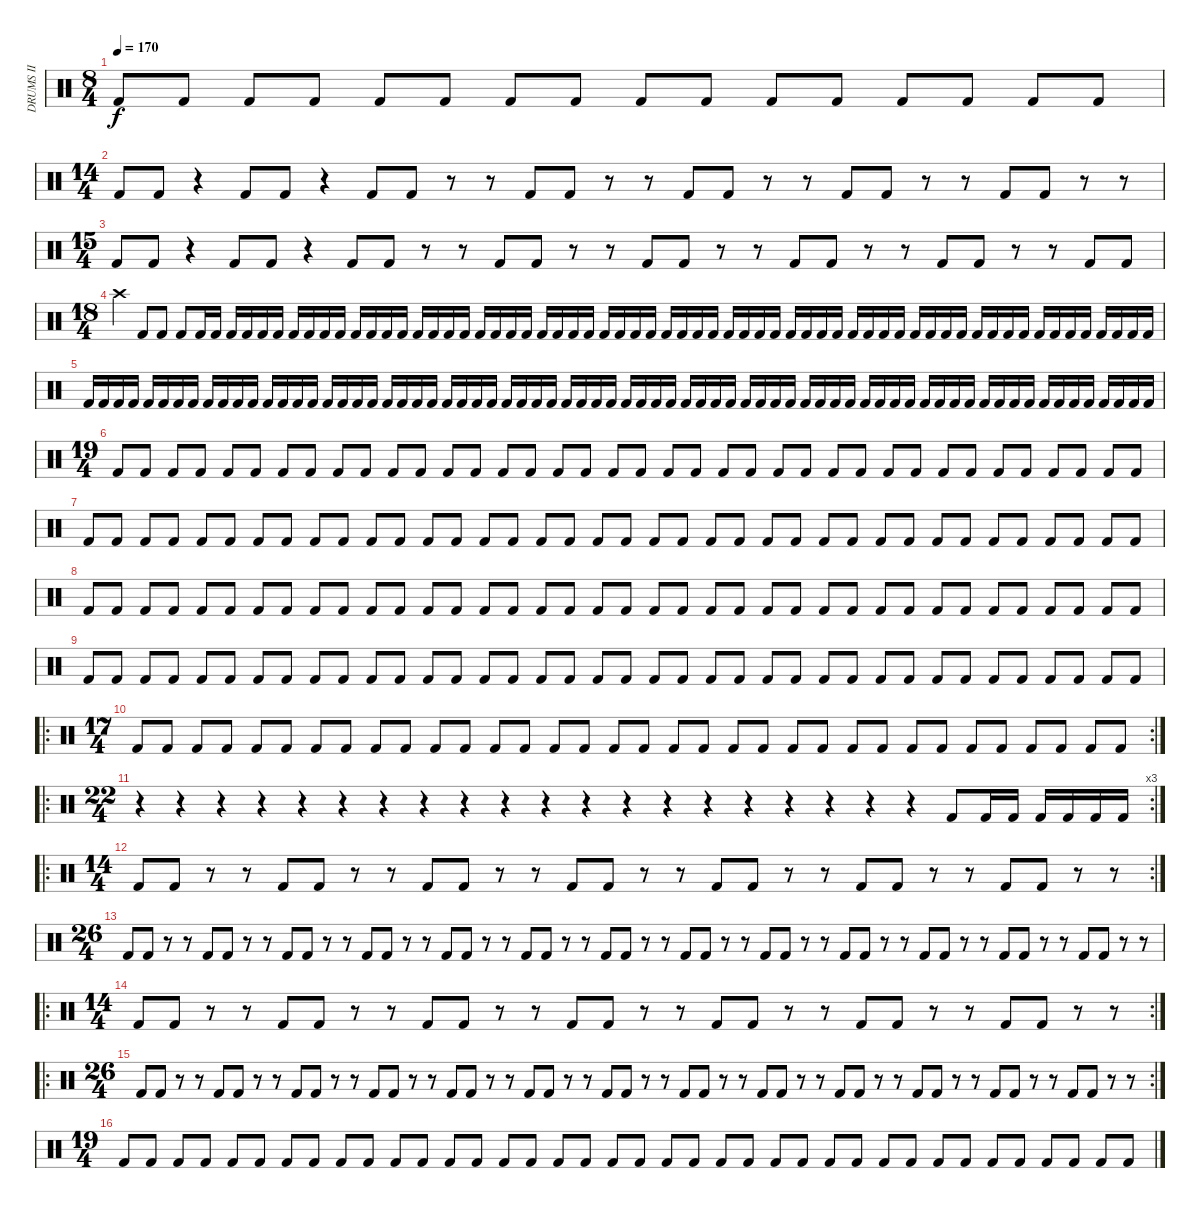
\track ("DRUMS II" "DRUMS II") {instrument percussion}
\staff {score}
\articulation defaults
\ts (8 4)
\tempo 170
\clef neutral
\ks c "Kick (hit) 2".8{dy f} "Kick (hit) 2".8 "Kick (hit) 2".8 "Kick (hit) 2".8 "Kick (hit) 2".8 "Kick (hit) 2".8 "Kick (hit) 2".8 "Kick (hit) 2".8 "Kick (hit) 2".8 "Kick (hit) 2".8 "Kick (hit) 2".8 "Kick (hit) 2".8 "Kick (hit) 2".8 "Kick (hit) 2".8 "Kick (hit) 2".8 "Kick (hit) 2".8
|
\ts (14 4)
"Kick (hit) 2".8 "Kick (hit) 2".8 r.4 "Kick (hit) 2".8 "Kick (hit) 2".8 r.4 "Kick (hit) 2".8 "Kick (hit) 2".8 r.8 r.8 "Kick (hit) 2".8 "Kick (hit) 2".8 r.8 r.8 "Kick (hit) 2".8 "Kick (hit) 2".8 r.8 r.8 "Kick (hit) 2".8 "Kick (hit) 2".8 r.8 r.8 "Kick (hit) 2".8 "Kick (hit) 2".8 r.8 r.8 |
\ts (15 4)
"Kick (hit) 2".8 "Kick (hit) 2".8 r.4 "Kick (hit) 2".8 "Kick (hit) 2".8 r.4 "Kick (hit) 2".8 "Kick (hit) 2".8 r.8 r.8 "Kick (hit) 2".8 "Kick (hit) 2".8 r.8 r.8 "Kick (hit) 2".8 "Kick (hit) 2".8 r.8 r.8 "Kick (hit) 2".8 "Kick (hit) 2".8 r.8 r.8 "Kick (hit) 2".8 "Kick (hit) 2".8 r.8 r.8 "Kick (hit) 2".8 "Kick (hit) 2".8 |
\ts (18 4)
"Crash high (hit)".4 "Kick (hit) 2".8 "Kick (hit) 2".8 "Kick (hit) 2".8 "Kick (hit) 2".16 "Kick (hit) 2".16 "Kick (hit) 2".16 "Kick (hit) 2".16 "Kick (hit) 2".16 "Kick (hit) 2".16 "Kick (hit) 2".16 "Kick (hit) 2".16 "Kick (hit) 2".16 "Kick (hit) 2".16 "Kick (hit) 2".16 "Kick (hit) 2".16 "Kick (hit) 2".16 "Kick (hit) 2".16 "Kick (hit) 2".16 "Kick (hit) 2".16 "Kick (hit) 2".16 "Kick (hit) 2".16 "Kick (hit) 2".16 "Kick (hit) 2".16 "Kick (hit) 2".16 "Kick (hit) 2".16 "Kick (hit) 2".16 "Kick (hit) 2".16 "Kick (hit) 2".16 "Kick (hit) 2".16 "Kick (hit) 2".16 "Kick (hit) 2".16 "Kick (hit) 2".16 "Kick (hit) 2".16 "Kick (hit) 2".16 "Kick (hit) 2".16 "Kick (hit) 2".16 "Kick (hit) 2".16 "Kick (hit) 2".16 "Kick (hit) 2".16 "Kick (hit) 2".16 "Kick (hit) 2".16 "Kick (hit) 2".16 "Kick (hit) 2".16 "Kick (hit) 2".16 "Kick (hit) 2".16 "Kick (hit) 2".16 "Kick (hit) 2".16 "Kick (hit) 2".16 "Kick (hit) 2".16 "Kick (hit) 2".16 "Kick (hit) 2".16 "Kick (hit) 2".16 "Kick (hit) 2".16 "Kick (hit) 2".16 "Kick (hit) 2".16 "Kick (hit) 2".16 "Kick (hit) 2".16 "Kick (hit) 2".16 "Kick (hit) 2".16 "Kick (hit) 2".16 "Kick (hit) 2".16 "Kick (hit) 2".16 "Kick (hit) 2".16 "Kick (hit) 2".16 "Kick (hit) 2".16 |
"Kick (hit) 2".16 "Kick (hit) 2".16 "Kick (hit) 2".16 "Kick (hit) 2".16 "Kick (hit) 2".16 "Kick (hit) 2".16 "Kick (hit) 2".16 "Kick (hit) 2".16 "Kick (hit) 2".16 "Kick (hit) 2".16 "Kick (hit) 2".16 "Kick (hit) 2".16 "Kick (hit) 2".16 "Kick (hit) 2".16 "Kick (hit) 2".16 "Kick (hit) 2".16 "Kick (hit) 2".16 "Kick (hit) 2".16 "Kick (hit) 2".16 "Kick (hit) 2".16 "Kick (hit) 2".16 "Kick (hit) 2".16 "Kick (hit) 2".16 "Kick (hit) 2".16 "Kick (hit) 2".16 "Kick (hit) 2".16 "Kick (hit) 2".16 "Kick (hit) 2".16 "Kick (hit) 2".16 "Kick (hit) 2".16 "Kick (hit) 2".16 "Kick (hit) 2".16 "Kick (hit) 2".16 "Kick (hit) 2".16 "Kick (hit) 2".16 "Kick (hit) 2".16 "Kick (hit) 2".16 "Kick (hit) 2".16 "Kick (hit) 2".16 "Kick (hit) 2".16 "Kick (hit) 2".16 "Kick (hit) 2".16 "Kick (hit) 2".16 "Kick (hit) 2".16 "Kick (hit) 2".16 "Kick (hit) 2".16 "Kick (hit) 2".16 "Kick (hit) 2".16 "Kick (hit) 2".16 "Kick (hit) 2".16 "Kick (hit) 2".16 "Kick (hit) 2".16 "Kick (hit) 2".16 "Kick (hit) 2".16 "Kick (hit) 2".16 "Kick (hit) 2".16 "Kick (hit) 2".16 "Kick (hit) 2".16 "Kick (hit) 2".16 "Kick (hit) 2".16 "Kick (hit) 2".16 "Kick (hit) 2".16 "Kick (hit) 2".16 "Kick (hit) 2".16 "Kick (hit) 2".16 "Kick (hit) 2".16 "Kick (hit) 2".16 "Kick (hit) 2".16 "Kick (hit) 2".16 "Kick (hit) 2".16 "Kick (hit) 2".16 "Kick (hit) 2".16 |
\ts (19 4)
"Kick (hit) 2".8 "Kick (hit) 2".8 "Kick (hit) 2".8 "Kick (hit) 2".8 "Kick (hit) 2".8 "Kick (hit) 2".8 "Kick (hit) 2".8 "Kick (hit) 2".8 "Kick (hit) 2".8 "Kick (hit) 2".8 "Kick (hit) 2".8 "Kick (hit) 2".8 "Kick (hit) 2".8 "Kick (hit) 2".8 "Kick (hit) 2".8 "Kick (hit) 2".8 "Kick (hit) 2".8 "Kick (hit) 2".8 "Kick (hit) 2".8 "Kick (hit) 2".8 "Kick (hit) 2".8 "Kick (hit) 2".8 "Kick (hit) 2".8 "Kick (hit) 2".8 "Kick (hit) 2".8 "Kick (hit) 2".8 "Kick (hit) 2".8 "Kick (hit) 2".8 "Kick (hit) 2".8 "Kick (hit) 2".8 "Kick (hit) 2".8 "Kick (hit) 2".8 "Kick (hit) 2".8 "Kick (hit) 2".8 "Kick (hit) 2".8 "Kick (hit) 2".8 "Kick (hit) 2".8 "Kick (hit) 2".8 |
"Kick (hit) 2".8 "Kick (hit) 2".8 "Kick (hit) 2".8 "Kick (hit) 2".8 "Kick (hit) 2".8 "Kick (hit) 2".8 "Kick (hit) 2".8 "Kick (hit) 2".8 "Kick (hit) 2".8 "Kick (hit) 2".8 "Kick (hit) 2".8 "Kick (hit) 2".8 "Kick (hit) 2".8 "Kick (hit) 2".8 "Kick (hit) 2".8 "Kick (hit) 2".8 "Kick (hit) 2".8 "Kick (hit) 2".8 "Kick (hit) 2".8 "Kick (hit) 2".8 "Kick (hit) 2".8 "Kick (hit) 2".8 "Kick (hit) 2".8 "Kick (hit) 2".8 "Kick (hit) 2".8 "Kick (hit) 2".8 "Kick (hit) 2".8 "Kick (hit) 2".8 "Kick (hit) 2".8 "Kick (hit) 2".8 "Kick (hit) 2".8 "Kick (hit) 2".8 "Kick (hit) 2".8 "Kick (hit) 2".8 "Kick (hit) 2".8 "Kick (hit) 2".8 "Kick (hit) 2".8 "Kick (hit) 2".8 |
"Kick (hit) 2".8 "Kick (hit) 2".8 "Kick (hit) 2".8 "Kick (hit) 2".8 "Kick (hit) 2".8 "Kick (hit) 2".8 "Kick (hit) 2".8 "Kick (hit) 2".8 "Kick (hit) 2".8 "Kick (hit) 2".8 "Kick (hit) 2".8 "Kick (hit) 2".8 "Kick (hit) 2".8 "Kick (hit) 2".8 "Kick (hit) 2".8 "Kick (hit) 2".8 "Kick (hit) 2".8 "Kick (hit) 2".8 "Kick (hit) 2".8 "Kick (hit) 2".8 "Kick (hit) 2".8 "Kick (hit) 2".8 "Kick (hit) 2".8 "Kick (hit) 2".8 "Kick (hit) 2".8 "Kick (hit) 2".8 "Kick (hit) 2".8 "Kick (hit) 2".8 "Kick (hit) 2".8 "Kick (hit) 2".8 "Kick (hit) 2".8 "Kick (hit) 2".8 "Kick (hit) 2".8 "Kick (hit) 2".8 "Kick (hit) 2".8 "Kick (hit) 2".8 "Kick (hit) 2".8 "Kick (hit) 2".8 |
"Kick (hit) 2".8 "Kick (hit) 2".8 "Kick (hit) 2".8 "Kick (hit) 2".8 "Kick (hit) 2".8 "Kick (hit) 2".8 "Kick (hit) 2".8 "Kick (hit) 2".8 "Kick (hit) 2".8 "Kick (hit) 2".8 "Kick (hit) 2".8 "Kick (hit) 2".8 "Kick (hit) 2".8 "Kick (hit) 2".8 "Kick (hit) 2".8 "Kick (hit) 2".8 "Kick (hit) 2".8 "Kick (hit) 2".8 "Kick (hit) 2".8 "Kick (hit) 2".8 "Kick (hit) 2".8 "Kick (hit) 2".8 "Kick (hit) 2".8 "Kick (hit) 2".8 "Kick (hit) 2".8 "Kick (hit) 2".8 "Kick (hit) 2".8 "Kick (hit) 2".8 "Kick (hit) 2".8 "Kick (hit) 2".8 "Kick (hit) 2".8 "Kick (hit) 2".8 "Kick (hit) 2".8 "Kick (hit) 2".8 "Kick (hit) 2".8 "Kick (hit) 2".8 "Kick (hit) 2".8 "Kick (hit) 2".8 |
\ro
\rc 2
\ts (17 4)
"Kick (hit) 2".8 "Kick (hit) 2".8 "Kick (hit) 2".8 "Kick (hit) 2".8 "Kick (hit) 2".8 "Kick (hit) 2".8 "Kick (hit) 2".8 "Kick (hit) 2".8 "Kick (hit) 2".8 "Kick (hit) 2".8 "Kick (hit) 2".8 "Kick (hit) 2".8 "Kick (hit) 2".8 "Kick (hit) 2".8 "Kick (hit) 2".8 "Kick (hit) 2".8 "Kick (hit) 2".8 "Kick (hit) 2".8 "Kick (hit) 2".8 "Kick (hit) 2".8 "Kick (hit) 2".8 "Kick (hit) 2".8 "Kick (hit) 2".8 "Kick (hit) 2".8 "Kick (hit) 2".8 "Kick (hit) 2".8 "Kick (hit) 2".8 "Kick (hit) 2".8 "Kick (hit) 2".8 "Kick (hit) 2".8 "Kick (hit) 2".8 "Kick (hit) 2".8 "Kick (hit) 2".8 "Kick (hit) 2".8 |
\ro
\rc 3
\ts (22 4)
r.4 r.4 r.4 r.4 r.4 r.4 r.4 r.4 r.4 r.4 r.4 r.4 r.4 r.4 r.4 r.4 r.4 r.4 r.4 r.4 "Kick (hit) 2".8 "Kick (hit) 2".16 "Kick (hit) 2".16 "Kick (hit) 2".16 "Kick (hit) 2".16 "Kick (hit) 2".16 "Kick (hit) 2".16 |
\ro
\rc 2
\ts (14 4)
"Kick (hit) 2".8 "Kick (hit) 2".8 r.8 r.8 "Kick (hit) 2".8 "Kick (hit) 2".8 r.8 r.8 "Kick (hit) 2".8 "Kick (hit) 2".8 r.8 r.8 "Kick (hit) 2".8 "Kick (hit) 2".8 r.8 r.8 "Kick (hit) 2".8 "Kick (hit) 2".8 r.8 r.8 "Kick (hit) 2".8 "Kick (hit) 2".8 r.8 r.8 "Kick (hit) 2".8 "Kick (hit) 2".8 r.8 r.8 |
\ts (26 4)
"Kick (hit) 2".8 "Kick (hit) 2".8 r.8 r.8 "Kick (hit) 2".8 "Kick (hit) 2".8 r.8 r.8 "Kick (hit) 2".8 "Kick (hit) 2".8 r.8 r.8 "Kick (hit) 2".8 "Kick (hit) 2".8 r.8 r.8 "Kick (hit) 2".8 "Kick (hit) 2".8 r.8 r.8 "Kick (hit) 2".8 "Kick (hit) 2".8 r.8 r.8 "Kick (hit) 2".8 "Kick (hit) 2".8 r.8 r.8 "Kick (hit) 2".8 "Kick (hit) 2".8 r.8 r.8 "Kick (hit) 2".8 "Kick (hit) 2".8 r.8 r.8 "Kick (hit) 2".8 "Kick (hit) 2".8 r.8 r.8 "Kick (hit) 2".8 "Kick (hit) 2".8 r.8 r.8 "Kick (hit) 2".8 "Kick (hit) 2".8 r.8 r.8 "Kick (hit) 2".8 "Kick (hit) 2".8 r.8 r.8 |
\ro
\rc 2
\ts (14 4)
"Kick (hit) 2".8 "Kick (hit) 2".8 r.8 r.8 "Kick (hit) 2".8 "Kick (hit) 2".8 r.8 r.8 "Kick (hit) 2".8 "Kick (hit) 2".8 r.8 r.8 "Kick (hit) 2".8 "Kick (hit) 2".8 r.8 r.8 "Kick (hit) 2".8 "Kick (hit) 2".8 r.8 r.8 "Kick (hit) 2".8 "Kick (hit) 2".8 r.8 r.8 "Kick (hit) 2".8 "Kick (hit) 2".8 r.8 r.8 |
\ro
\rc 2
\ts (26 4)
"Kick (hit) 2".8 "Kick (hit) 2".8 r.8 r.8 "Kick (hit) 2".8 "Kick (hit) 2".8 r.8 r.8 "Kick (hit) 2".8 "Kick (hit) 2".8 r.8 r.8 "Kick (hit) 2".8 "Kick (hit) 2".8 r.8 r.8 "Kick (hit) 2".8 "Kick (hit) 2".8 r.8 r.8 "Kick (hit) 2".8 "Kick (hit) 2".8 r.8 r.8 "Kick (hit) 2".8 "Kick (hit) 2".8 r.8 r.8 "Kick (hit) 2".8 "Kick (hit) 2".8 r.8 r.8 "Kick (hit) 2".8 "Kick (hit) 2".8 r.8 r.8 "Kick (hit) 2".8 "Kick (hit) 2".8 r.8 r.8 "Kick (hit) 2".8 "Kick (hit) 2".8 r.8 r.8 "Kick (hit) 2".8 "Kick (hit) 2".8 r.8 r.8 "Kick (hit) 2".8 "Kick (hit) 2".8 r.8 r.8 |
\ts (19 4)
"Kick (hit) 2".8 "Kick (hit) 2".8 "Kick (hit) 2".8 "Kick (hit) 2".8 "Kick (hit) 2".8 "Kick (hit) 2".8 "Kick (hit) 2".8 "Kick (hit) 2".8 "Kick (hit) 2".8 "Kick (hit) 2".8 "Kick (hit) 2".8 "Kick (hit) 2".8 "Kick (hit) 2".8 "Kick (hit) 2".8 "Kick (hit) 2".8 "Kick (hit) 2".8 "Kick (hit) 2".8 "Kick (hit) 2".8 "Kick (hit) 2".8 "Kick (hit) 2".8 "Kick (hit) 2".8 "Kick (hit) 2".8 "Kick (hit) 2".8 "Kick (hit) 2".8 "Kick (hit) 2".8 "Kick (hit) 2".8 "Kick (hit) 2".8 "Kick (hit) 2".8 "Kick (hit) 2".8 "Kick (hit) 2".8 "Kick (hit) 2".8 "Kick (hit) 2".8 "Kick (hit) 2".8 "Kick (hit) 2".8 "Kick (hit) 2".8 "Kick (hit) 2".8 "Kick (hit) 2".8 "Kick (hit) 2".8
